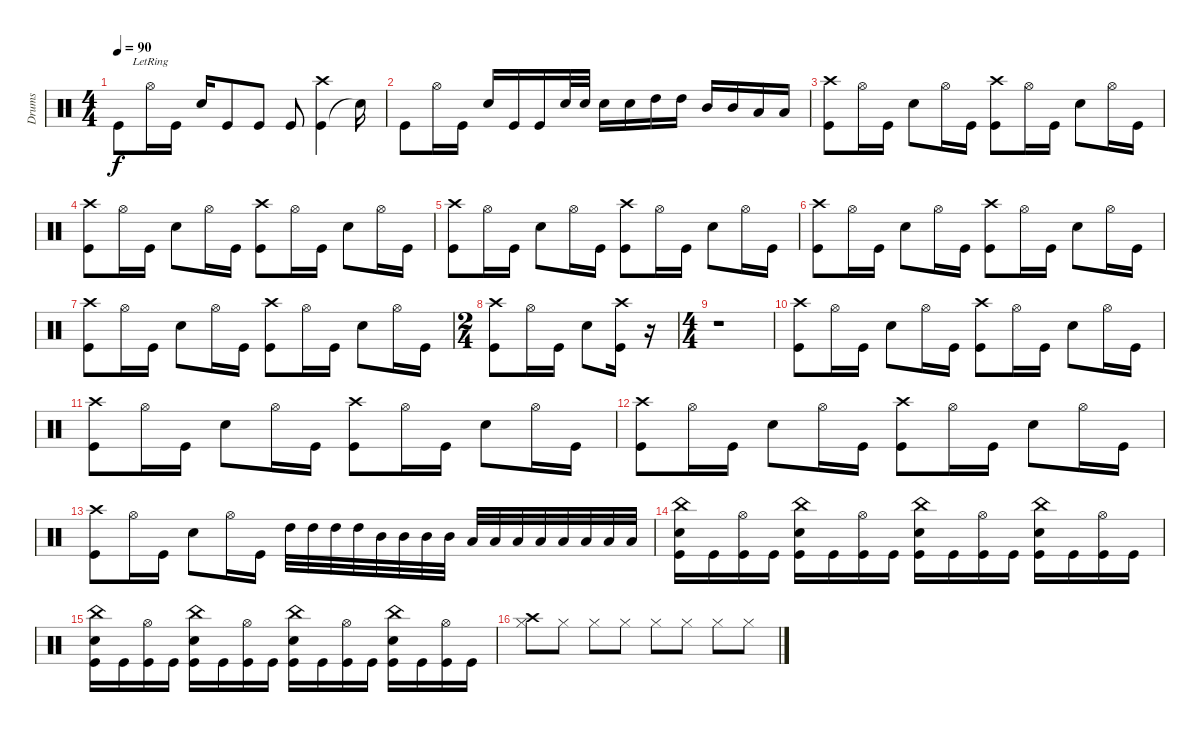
\track ("Drums" "Drums") {instrument percussion}
\staff {score}
\articulation defaults
\ts (4 4)
\tempo 90
\clef neutral
\ks c "Kick (hit)".8{dy f} "Hi-Hat (open)"{lr}.16 "Kick (hit)".16 "Snare (hit) 2".16 "Kick (hit)".8 "Kick (hit)".8 "Kick (hit)".8
("Kick (hit)" "Crash high (hit)").4 "Snare (hit)"{t}.16 |
"Kick (hit)".8 "Hi-Hat (open)".16 "Kick (hit)".16 "Snare (hit) 2".16 "Kick (hit)".16 "Kick (hit)".16 "Snare (hit) 2".32 "Snare (hit) 2".32 "Snare (hit) 2".16 "Snare (hit) 2".16 "High Tom (hit)".16 "High Tom (hit)".16 "Mid Tom (hit)".16 "Mid Tom (hit)".16 "Low Tom (hit)".16 "Low Tom (hit)".16 |
("Kick (hit)" "Crash high (hit)").8 "Hi-Hat (open)".16 "Kick (hit)".16 "Snare (hit) 2".8 "Hi-Hat (open)".16 "Kick (hit)".16 ("Kick (hit)" "Crash high (hit)").8 "Hi-Hat (open)".16 "Kick (hit)".16 "Snare (hit) 2".8 "Hi-Hat (open)".16 "Kick (hit)".16 |
("Kick (hit)" "Crash high (hit)").8 "Hi-Hat (open)".16 "Kick (hit)".16 "Snare (hit) 2".8 "Hi-Hat (open)".16 "Kick (hit)".16 ("Kick (hit)" "Crash high (hit)").8 "Hi-Hat (open)".16 "Kick (hit)".16 "Snare (hit) 2".8 "Hi-Hat (open)".16 "Kick (hit)".16 |
("Kick (hit)" "Crash high (hit)").8 "Hi-Hat (open)".16 "Kick (hit)".16 "Snare (hit) 2".8 "Hi-Hat (open)".16 "Kick (hit)".16 ("Kick (hit)" "Crash high (hit)").8 "Hi-Hat (open)".16 "Kick (hit)".16 "Snare (hit) 2".8 "Hi-Hat (open)".16 "Kick (hit)".16 |
("Kick (hit)" "Crash high (hit)").8 "Hi-Hat (open)".16 "Kick (hit)".16 "Snare (hit) 2".8 "Hi-Hat (open)".16 "Kick (hit)".16 ("Kick (hit)" "Crash high (hit)").8 "Hi-Hat (open)".16 "Kick (hit)".16 "Snare (hit) 2".8 "Hi-Hat (open)".16 "Kick (hit)".16 |
("Kick (hit)" "Crash high (hit)").8 "Hi-Hat (open)".16 "Kick (hit)".16 "Snare (hit) 2".8 "Hi-Hat (open)".16 "Kick (hit)".16 ("Kick (hit)" "Crash high (hit)").8 "Hi-Hat (open)".16 "Kick (hit)".16 "Snare (hit) 2".8 "Hi-Hat (open)".16 "Kick (hit)".16 |
\ts (2 4)
("Kick (hit)" "Crash high (hit)").8 "Hi-Hat (open)".16 "Kick (hit)".16 "Snare (hit) 2".8 ("Kick (hit)" "Crash high (hit)").16 r.16 |
\ts (4 4)
r.1 |
("Kick (hit)" "Crash high (hit)").8 "Hi-Hat (open)".16 "Kick (hit)".16 "Snare (hit) 2".8 "Hi-Hat (open)".16 "Kick (hit)".16 ("Kick (hit)" "Crash high (hit)").8 "Hi-Hat (open)".16 "Kick (hit)".16 "Snare (hit) 2".8 "Hi-Hat (open)".16 "Kick (hit)".16 |
("Kick (hit)" "Crash high (hit)").8 "Hi-Hat (open)".16 "Kick (hit)".16 "Snare (hit) 2".8 "Hi-Hat (open)".16 "Kick (hit)".16 ("Kick (hit)" "Crash high (hit)").8 "Hi-Hat (open)".16 "Kick (hit)".16 "Snare (hit) 2".8 "Hi-Hat (open)".16 "Kick (hit)".16 |
("Kick (hit)" "Crash high (hit)").8 "Hi-Hat (open)".16 "Kick (hit)".16 "Snare (hit) 2".8 "Hi-Hat (open)".16 "Kick (hit)".16 ("Kick (hit)" "Crash high (hit)").8 "Hi-Hat (open)".16 "Kick (hit)".16 "Snare (hit) 2".8 "Hi-Hat (open)".16 "Kick (hit)".16 |
("Kick (hit)" "Crash high (hit)").8 "Hi-Hat (open)".16 "Kick (hit)".16 "Snare (hit) 2".8 "Hi-Hat (open)".16 "Kick (hit)".16 "High Tom (hit)".32 "High Tom (hit)".32 "High Tom (hit)".32 "High Tom (hit)".32 "Mid Tom (hit)".32 "Mid Tom (hit)".32 "Mid Tom (hit)".32 "Mid Tom (hit)".32 "Low Tom (hit)".32 "Low Tom (hit)".32 "Low Tom (hit)".32 "Low Tom (hit)".32 "Low Floor Tom (hit)".32 "Low Floor Tom (hit)".32 "Low Floor Tom (hit)".32 "Low Floor Tom (hit)".32 |
("Snare (hit) 2" "Kick (hit)" "China (hit)").16 "Kick (hit)".16 ("Kick (hit)" "Hi-Hat (open)").16 "Kick (hit)".16 ("Snare (hit) 2" "Kick (hit)" "China (hit)").16 "Kick (hit)".16 ("Kick (hit)" "Hi-Hat (open)").16 "Kick (hit)".16 ("Snare (hit) 2" "Kick (hit)" "China (hit)").16 "Kick (hit)".16 ("Kick (hit)" "Hi-Hat (open)").16 "Kick (hit)".16 ("Snare (hit) 2" "Kick (hit)" "China (hit)").16 "Kick (hit)".16 ("Kick (hit)" "Hi-Hat (open)").16 "Kick (hit)".16 |
("Snare (hit) 2" "Kick (hit)" "China (hit)").16 "Kick (hit)".16 ("Kick (hit)" "Hi-Hat (open)").16 "Kick (hit)".16 ("Snare (hit) 2" "Kick (hit)" "China (hit)").16 "Kick (hit)".16 ("Kick (hit)" "Hi-Hat (open)").16 "Kick (hit)".16 ("Snare (hit) 2" "Kick (hit)" "China (hit)").16 "Kick (hit)".16 ("Kick (hit)" "Hi-Hat (open)").16 "Kick (hit)".16 ("Snare (hit) 2" "Kick (hit)" "China (hit)").16 "Kick (hit)".16 ("Kick (hit)" "Hi-Hat (open)").16 "Kick (hit)".16 |
("Hi-Hat (closed)" "Crash high (hit)").8 "Hi-Hat (closed)".8 "Hi-Hat (closed)".8 "Hi-Hat (closed)".8 "Hi-Hat (closed)".8 "Hi-Hat (closed)".8 "Hi-Hat (closed)".8 "Hi-Hat (closed)".8
